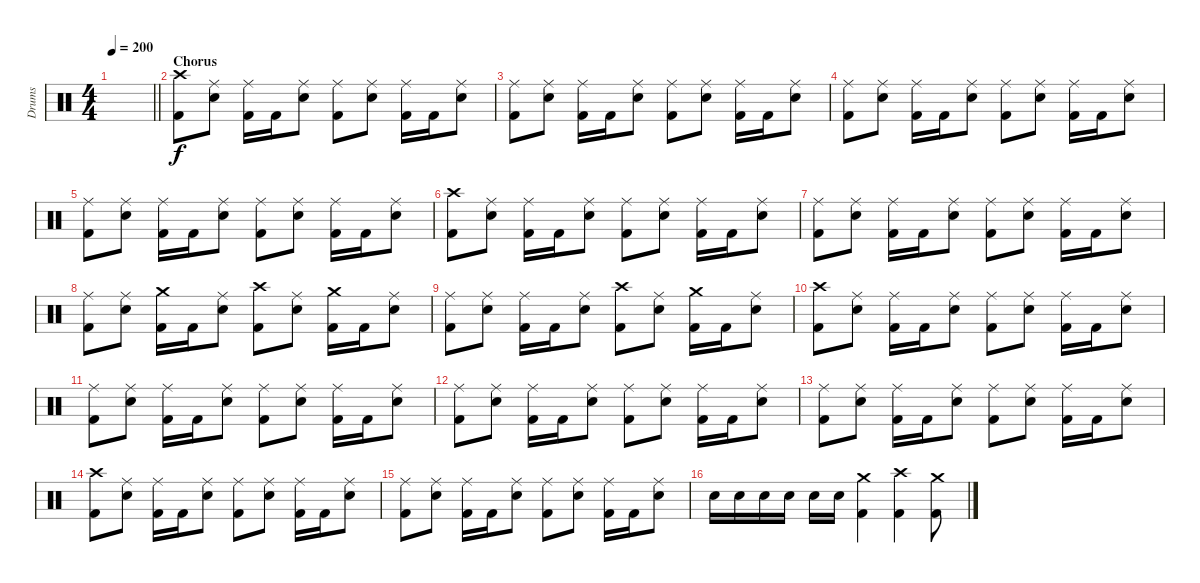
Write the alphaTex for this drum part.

\track ("Drums" "Drums") {instrument percussion}
\staff {score}
\articulation defaults
\ts (4 4)
\tempo 200
\clef neutral
\barLineRight lightlight
\ks c
|
\section ("" "Chorus")
("Crash high (hit)" "Kick (hit) 2").8 ("Ride (middle)" "Electric Snare (hit)").8 ("Ride (middle)" "Kick (hit) 2").16 "Kick (hit) 2".16 ("Ride (middle)" "Electric Snare (hit)").8 ("Ride (middle)" "Kick (hit) 2").8 ("Ride (middle)" "Electric Snare (hit)").8 ("Ride (middle)" "Kick (hit) 2").16 "Kick (hit) 2".16 ("Ride (middle)" "Electric Snare (hit)").8 |
("Ride (middle)" "Kick (hit) 2").8 ("Ride (middle)" "Electric Snare (hit)").8 ("Ride (middle)" "Kick (hit) 2").16 "Kick (hit) 2".16 ("Ride (middle)" "Electric Snare (hit)").8 ("Ride (middle)" "Kick (hit) 2").8 ("Ride (middle)" "Electric Snare (hit)").8 ("Ride (middle)" "Kick (hit) 2").16 "Kick (hit) 2".16 ("Ride (middle)" "Electric Snare (hit)").8 |
("Ride (middle)" "Kick (hit) 2").8 ("Ride (middle)" "Electric Snare (hit)").8 ("Ride (middle)" "Kick (hit) 2").16 "Kick (hit) 2".16 ("Ride (middle)" "Electric Snare (hit)").8 ("Ride (middle)" "Kick (hit) 2").8 ("Ride (middle)" "Electric Snare (hit)").8 ("Ride (middle)" "Kick (hit) 2").16 "Kick (hit) 2".16 ("Ride (middle)" "Electric Snare (hit)").8 |
("Ride (middle)" "Kick (hit) 2").8 ("Ride (middle)" "Electric Snare (hit)").8 ("Ride (middle)" "Kick (hit) 2").16 "Kick (hit) 2".16 ("Ride (middle)" "Electric Snare (hit)").8 ("Ride (middle)" "Kick (hit) 2").8 ("Ride (middle)" "Electric Snare (hit)").8 ("Ride (middle)" "Kick (hit) 2").16 "Kick (hit) 2".16 ("Ride (middle)" "Electric Snare (hit)").8 |
("Crash high (hit)" "Kick (hit) 2").8 ("Ride (middle)" "Electric Snare (hit)").8 ("Ride (middle)" "Kick (hit) 2").16 "Kick (hit) 2".16 ("Ride (middle)" "Electric Snare (hit)").8 ("Ride (middle)" "Kick (hit) 2").8 ("Ride (middle)" "Electric Snare (hit)").8 ("Ride (middle)" "Kick (hit) 2").16 "Kick (hit) 2".16 ("Ride (middle)" "Electric Snare (hit)").8 |
("Ride (middle)" "Kick (hit) 2").8 ("Ride (middle)" "Electric Snare (hit)").8 ("Ride (middle)" "Kick (hit) 2").16 "Kick (hit) 2".16 ("Ride (middle)" "Electric Snare (hit)").8 ("Ride (middle)" "Kick (hit) 2").8 ("Ride (middle)" "Electric Snare (hit)").8 ("Ride (middle)" "Kick (hit) 2").16 "Kick (hit) 2".16 ("Ride (middle)" "Electric Snare (hit)").8 |
("Ride (middle)" "Kick (hit) 2").8 ("Ride (middle)" "Electric Snare (hit)").8 ("Crash medium (hit)" "Kick (hit) 2").16 "Kick (hit) 2".16 ("Ride (middle)" "Electric Snare (hit)").8 ("Crash high (hit)" "Kick (hit) 2").8 ("Ride (middle)" "Electric Snare (hit)").8 ("Crash medium (hit)" "Kick (hit) 2").16 "Kick (hit) 2".16 ("Ride (middle)" "Electric Snare (hit)").8 |
("Ride (middle)" "Kick (hit) 2").8 ("Ride (middle)" "Electric Snare (hit)").8 ("Ride (middle)" "Kick (hit) 2").16 "Kick (hit) 2".16 ("Ride (middle)" "Electric Snare (hit)").8 ("Crash high (hit)" "Kick (hit) 2").8 ("Ride (middle)" "Electric Snare (hit)").8 ("Crash medium (hit)" "Kick (hit) 2").16 "Kick (hit) 2".16 ("Ride (middle)" "Electric Snare (hit)").8 |
("Crash high (hit)" "Kick (hit) 2").8 ("Ride (middle)" "Electric Snare (hit)").8 ("Ride (middle)" "Kick (hit) 2").16 "Kick (hit) 2".16 ("Ride (middle)" "Electric Snare (hit)").8 ("Ride (middle)" "Kick (hit) 2").8 ("Ride (middle)" "Electric Snare (hit)").8 ("Ride (middle)" "Kick (hit) 2").16 "Kick (hit) 2".16 ("Ride (middle)" "Electric Snare (hit)").8 |
("Ride (middle)" "Kick (hit) 2").8 ("Ride (middle)" "Electric Snare (hit)").8 ("Ride (middle)" "Kick (hit) 2").16 "Kick (hit) 2".16 ("Ride (middle)" "Electric Snare (hit)").8 ("Ride (middle)" "Kick (hit) 2").8 ("Ride (middle)" "Electric Snare (hit)").8 ("Ride (middle)" "Kick (hit) 2").16 "Kick (hit) 2".16 ("Ride (middle)" "Electric Snare (hit)").8 |
("Ride (middle)" "Kick (hit) 2").8 ("Ride (middle)" "Electric Snare (hit)").8 ("Ride (middle)" "Kick (hit) 2").16 "Kick (hit) 2".16 ("Ride (middle)" "Electric Snare (hit)").8 ("Ride (middle)" "Kick (hit) 2").8 ("Ride (middle)" "Electric Snare (hit)").8 ("Ride (middle)" "Kick (hit) 2").16 "Kick (hit) 2".16 ("Ride (middle)" "Electric Snare (hit)").8 |
("Ride (middle)" "Kick (hit) 2").8 ("Ride (middle)" "Electric Snare (hit)").8 ("Ride (middle)" "Kick (hit) 2").16 "Kick (hit) 2".16 ("Ride (middle)" "Electric Snare (hit)").8 ("Ride (middle)" "Kick (hit) 2").8 ("Ride (middle)" "Electric Snare (hit)").8 ("Ride (middle)" "Kick (hit) 2").16 "Kick (hit) 2".16 ("Ride (middle)" "Electric Snare (hit)").8 |
("Crash high (hit)" "Kick (hit) 2").8 ("Ride (middle)" "Electric Snare (hit)").8 ("Ride (middle)" "Kick (hit) 2").16 "Kick (hit) 2".16 ("Ride (middle)" "Electric Snare (hit)").8 ("Ride (middle)" "Kick (hit) 2").8 ("Ride (middle)" "Electric Snare (hit)").8 ("Ride (middle)" "Kick (hit) 2").16 "Kick (hit) 2".16 ("Ride (middle)" "Electric Snare (hit)").8 |
("Ride (middle)" "Kick (hit) 2").8 ("Ride (middle)" "Electric Snare (hit)").8 ("Ride (middle)" "Kick (hit) 2").16 "Kick (hit) 2".16 ("Ride (middle)" "Electric Snare (hit)").8 ("Ride (middle)" "Kick (hit) 2").8 ("Ride (middle)" "Electric Snare (hit)").8 ("Ride (middle)" "Kick (hit) 2").16 "Kick (hit) 2".16 ("Ride (middle)" "Electric Snare (hit)").8 |
"Electric Snare (hit)".16 "Electric Snare (hit)".16 "Electric Snare (hit)".16 "Electric Snare (hit)".16 "Electric Snare (hit)".16 "Electric Snare (hit)".16 ("Crash medium (hit)" "Kick (hit) 2").4 ("Crash high (hit)" "Kick (hit) 2").4 ("Crash medium (hit)" "Kick (hit) 2").8
